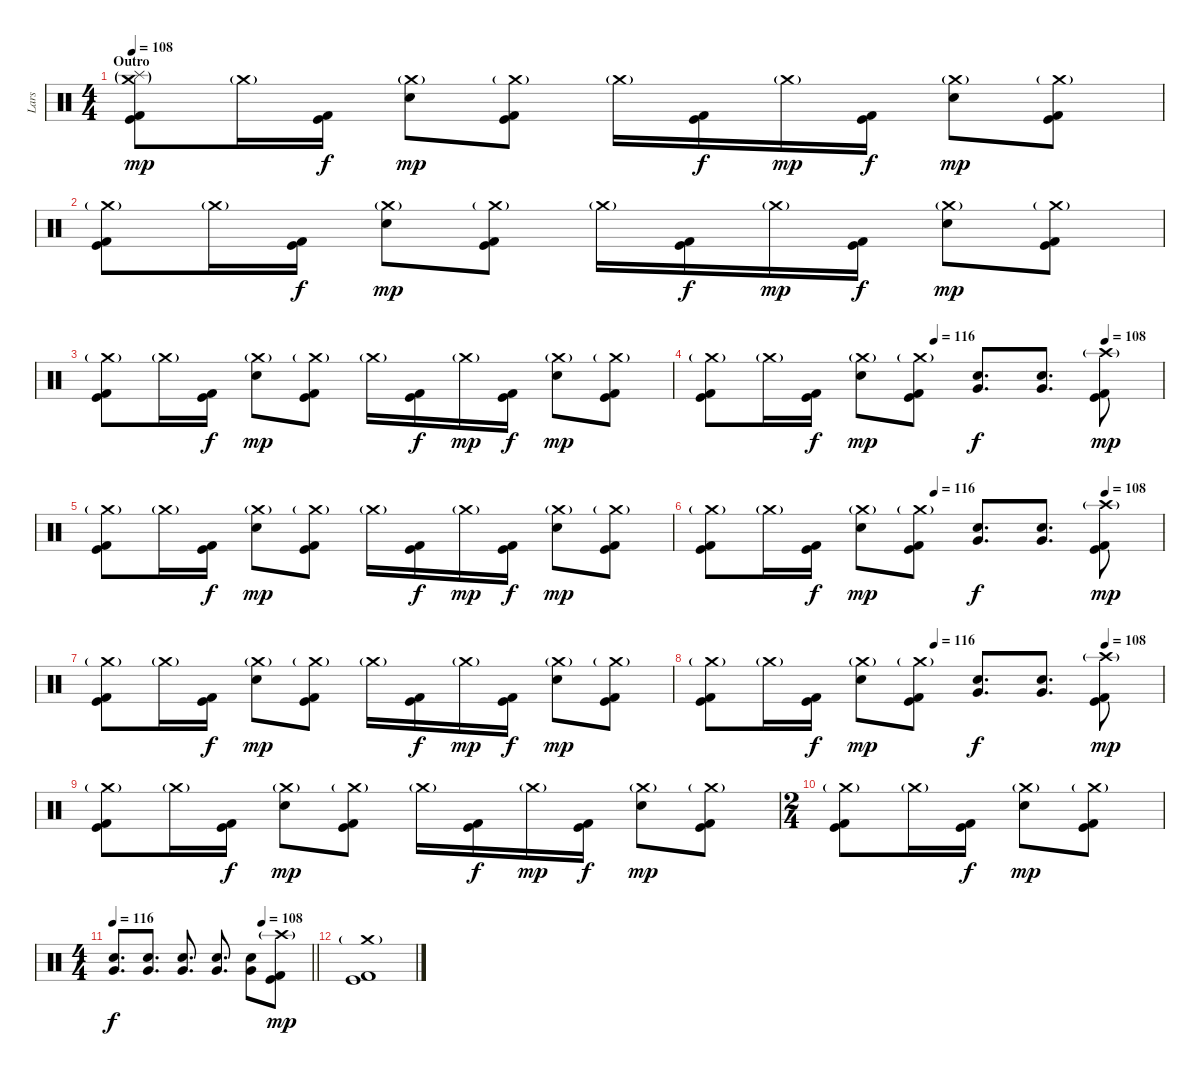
\track ("Lars" "Lars") {instrument percussion}
\staff {score}
\articulation defaults
\ts (4 4)
\section ("" "Outro")
\tempo 108
\clef neutral
\ks c
("Crash medium (hit)"{g} "Splash (hit)"{g} "Kick (hit)" "Kick (hit) 2").8{dy mp} "Crash medium (hit)"{g}.16 ("Kick (hit)" "Kick (hit) 2").16{dy f} ("Crash medium (hit)"{g} "Electric Snare (hit)").8{dy mp} ("Crash medium (hit)"{g} "Kick (hit)" "Kick (hit) 2").8 "Crash medium (hit)"{g}.16 ("Kick (hit)" "Kick (hit) 2").16{dy f} "Crash medium (hit)"{g}.16{dy mp} ("Kick (hit)" "Kick (hit) 2").16{dy f} ("Crash medium (hit)"{g} "Electric Snare (hit)").8{dy mp} ("Crash medium (hit)"{g} "Kick (hit)" "Kick (hit) 2").8 |
("Crash medium (hit)"{g} "Kick (hit)" "Kick (hit) 2").8 "Crash medium (hit)"{g}.16 ("Kick (hit)" "Kick (hit) 2").16{dy f} ("Crash medium (hit)"{g} "Electric Snare (hit)").8{dy mp} ("Crash medium (hit)"{g} "Kick (hit)" "Kick (hit) 2").8 "Crash medium (hit)"{g}.16 ("Kick (hit)" "Kick (hit) 2").16{dy f} "Crash medium (hit)"{g}.16{dy mp} ("Kick (hit)" "Kick (hit) 2").16{dy f} ("Crash medium (hit)"{g} "Electric Snare (hit)").8{dy mp} ("Crash medium (hit)"{g} "Kick (hit)" "Kick (hit) 2").8 |
("Crash medium (hit)"{g} "Kick (hit)" "Kick (hit) 2").8 "Crash medium (hit)"{g}.16 ("Kick (hit)" "Kick (hit) 2").16{dy f} ("Crash medium (hit)"{g} "Electric Snare (hit)").8{dy mp} ("Crash medium (hit)"{g} "Kick (hit)" "Kick (hit) 2").8 "Crash medium (hit)"{g}.16 ("Kick (hit)" "Kick (hit) 2").16{dy f} "Crash medium (hit)"{g}.16{dy mp} ("Kick (hit)" "Kick (hit) 2").16{dy f} ("Crash medium (hit)"{g} "Electric Snare (hit)").8{dy mp} ("Crash medium (hit)"{g} "Kick (hit)" "Kick (hit) 2").8 |
\tempo (116 0.5)
\tempo (108 0.875)
("Crash medium (hit)"{g} "Kick (hit)" "Kick (hit) 2").8 "Crash medium (hit)"{g}.16 ("Kick (hit)" "Kick (hit) 2").16{dy f} ("Crash medium (hit)"{g} "Electric Snare (hit)").8{dy mp} ("Crash medium (hit)"{g} "Kick (hit)" "Kick (hit) 2").8 ("Electric Snare (hit)" "Very Low Tom (hit)").8{d dy f} ("Electric Snare (hit)" "Very Low Tom (hit)").8{d} ("Crash high (hit)"{g} "Kick (hit)" "Kick (hit) 2").8{dy mp} |
("Crash medium (hit)"{g} "Kick (hit)" "Kick (hit) 2").8 "Crash medium (hit)"{g}.16 ("Kick (hit)" "Kick (hit) 2").16{dy f} ("Crash medium (hit)"{g} "Electric Snare (hit)").8{dy mp} ("Crash medium (hit)"{g} "Kick (hit)" "Kick (hit) 2").8 "Crash medium (hit)"{g}.16 ("Kick (hit)" "Kick (hit) 2").16{dy f} "Crash medium (hit)"{g}.16{dy mp} ("Kick (hit)" "Kick (hit) 2").16{dy f} ("Crash medium (hit)"{g} "Electric Snare (hit)").8{dy mp} ("Crash medium (hit)"{g} "Kick (hit)" "Kick (hit) 2").8 |
\tempo (116 0.5)
\tempo (108 0.875)
("Crash medium (hit)"{g} "Kick (hit)" "Kick (hit) 2").8 "Crash medium (hit)"{g}.16 ("Kick (hit)" "Kick (hit) 2").16{dy f} ("Crash medium (hit)"{g} "Electric Snare (hit)").8{dy mp} ("Crash medium (hit)"{g} "Kick (hit)" "Kick (hit) 2").8 ("Electric Snare (hit)" "Very Low Tom (hit)").8{d dy f} ("Electric Snare (hit)" "Very Low Tom (hit)").8{d} ("Crash high (hit)"{g} "Kick (hit)" "Kick (hit) 2").8{dy mp} |
("Crash medium (hit)"{g} "Kick (hit)" "Kick (hit) 2").8 "Crash medium (hit)"{g}.16 ("Kick (hit)" "Kick (hit) 2").16{dy f} ("Crash medium (hit)"{g} "Electric Snare (hit)").8{dy mp} ("Crash medium (hit)"{g} "Kick (hit)" "Kick (hit) 2").8 "Crash medium (hit)"{g}.16 ("Kick (hit)" "Kick (hit) 2").16{dy f} "Crash medium (hit)"{g}.16{dy mp} ("Kick (hit)" "Kick (hit) 2").16{dy f} ("Crash medium (hit)"{g} "Electric Snare (hit)").8{dy mp} ("Crash medium (hit)"{g} "Kick (hit)" "Kick (hit) 2").8 |
\tempo (116 0.5)
\tempo (108 0.875)
("Crash medium (hit)"{g} "Kick (hit)" "Kick (hit) 2").8 "Crash medium (hit)"{g}.16 ("Kick (hit)" "Kick (hit) 2").16{dy f} ("Crash medium (hit)"{g} "Electric Snare (hit)").8{dy mp} ("Crash medium (hit)"{g} "Kick (hit)" "Kick (hit) 2").8 ("Electric Snare (hit)" "Very Low Tom (hit)").8{d dy f} ("Electric Snare (hit)" "Very Low Tom (hit)").8{d} ("Crash high (hit)"{g} "Kick (hit)" "Kick (hit) 2").8{dy mp} |
("Crash medium (hit)"{g} "Kick (hit)" "Kick (hit) 2").8 "Crash medium (hit)"{g}.16 ("Kick (hit)" "Kick (hit) 2").16{dy f} ("Crash medium (hit)"{g} "Electric Snare (hit)").8{dy mp} ("Crash medium (hit)"{g} "Kick (hit)" "Kick (hit) 2").8 "Crash medium (hit)"{g}.16 ("Kick (hit)" "Kick (hit) 2").16{dy f} "Crash medium (hit)"{g}.16{dy mp} ("Kick (hit)" "Kick (hit) 2").16{dy f} ("Crash medium (hit)"{g} "Electric Snare (hit)").8{dy mp} ("Crash medium (hit)"{g} "Kick (hit)" "Kick (hit) 2").8 |
\ts (2 4)
("Crash medium (hit)"{g} "Kick (hit)" "Kick (hit) 2").8 "Crash medium (hit)"{g}.16 ("Kick (hit)" "Kick (hit) 2").16{dy f} ("Crash medium (hit)"{g} "Electric Snare (hit)").8{dy mp} ("Crash medium (hit)"{g} "Kick (hit)" "Kick (hit) 2").8 |
\ts (4 4)
\tempo 116
\tempo (108 0.75)
\barLineRight lightlight
("Electric Snare (hit)" "Very Low Tom (hit)").8{d dy f} ("Electric Snare (hit)" "Very Low Tom (hit)").8{d} ("Electric Snare (hit)" "Very Low Tom (hit)").8{d} ("Electric Snare (hit)" "Very Low Tom (hit)").8{d} ("Electric Snare (hit)" "Very Low Tom (hit)").8 ("Crash high (hit)"{g} "Kick (hit)" "Kick (hit) 2").8{dy mp} |
("Crash medium (hit)"{g} "Kick (hit)" "Kick (hit) 2").1
